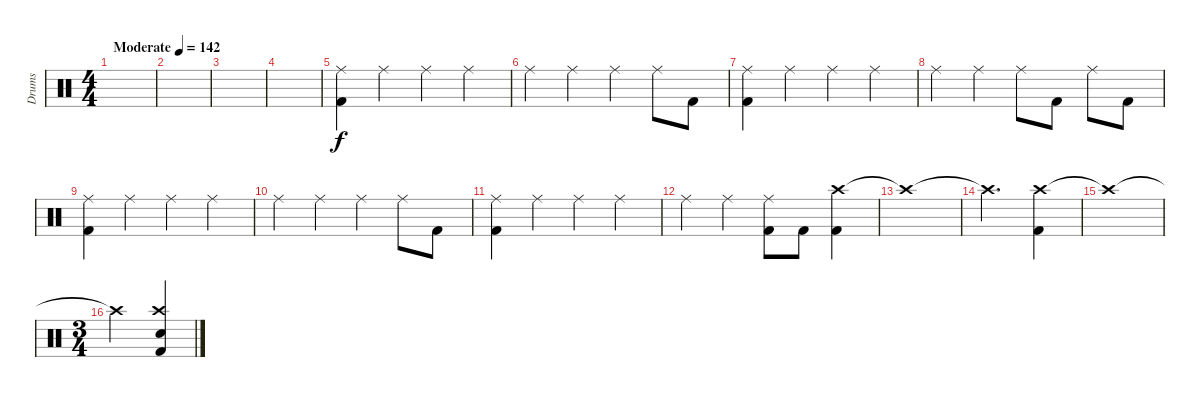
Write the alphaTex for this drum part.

\track ("Drums" "Drums") {instrument percussion}
\staff {score}
\articulation defaults
\ts (4 4)
\tempo (142 "Moderate")
\clef neutral
\ks c
|
|
|
|
("Ride (middle)" "Kick (hit) 2").4 "Ride (middle)".4 "Ride (middle)".4 "Ride (middle)".4 |
"Ride (middle)".4 "Ride (middle)".4 "Ride (middle)".4 "Ride (middle)".8 "Kick (hit) 2".8 |
("Ride (middle)" "Kick (hit) 2").4 "Ride (middle)".4 "Ride (middle)".4 "Ride (middle)".4 |
"Ride (middle)".4 "Ride (middle)".4 "Ride (middle)".8 "Kick (hit) 2".8 "Ride (middle)".8 "Kick (hit) 2".8 |
("Ride (middle)" "Kick (hit) 2").4 "Ride (middle)".4 "Ride (middle)".4 "Ride (middle)".4 |
"Ride (middle)".4 "Ride (middle)".4 "Ride (middle)".4 "Ride (middle)".8 "Kick (hit) 2".8 |
("Ride (middle)" "Kick (hit) 2").4 "Ride (middle)".4 "Ride (middle)".4 "Ride (middle)".4 |
"Ride (middle)".4 "Ride (middle)".4 ("Ride (middle)" "Kick (hit) 2").8 "Kick (hit) 2".8 ("Crash high (hit)" "Kick (hit) 2").4 |
"Crash high (hit)"{t}.1 |
"Crash high (hit)"{t}.2{d} ("Crash high (hit)" "Kick (hit) 2").4 |
"Crash high (hit)"{t}.1 |
\ts (3 4)
"Crash high (hit)"{t}.2 ("Crash high (hit)" "Snare (hit) 2" "Kick (hit) 2").4
